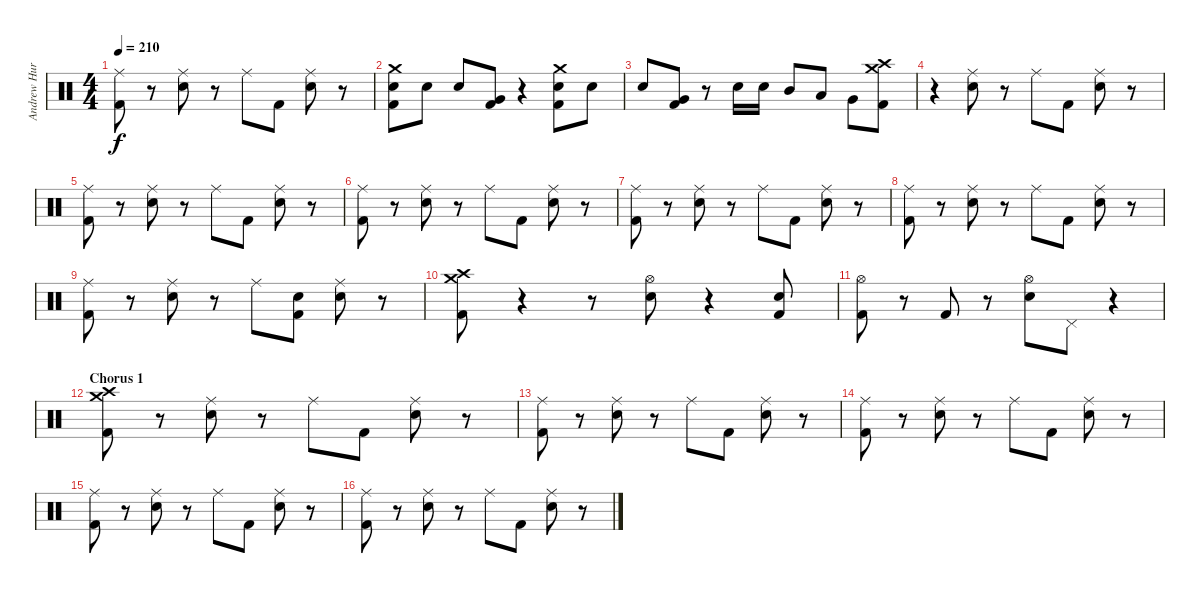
\track ("Andrew Hurley (Drums)" "Andrew Hur") {instrument percussion}
\staff {score}
\articulation defaults
\ts (4 4)
\tempo 210
\clef neutral
\ks c
("Ride (middle)" "Kick (hit) 2").8{dy f} r.8 ("Ride (middle)" "Electric Snare (hit)").8 r.8 "Ride (middle)".8 "Kick (hit) 2".8 ("Ride (middle)" "Electric Snare (hit)").8 r.8 |
("Crash medium (hit)" "Electric Snare (hit)" "Kick (hit) 2").8 "Electric Snare (hit)".8 "Electric Snare (hit)".8 ("Very Low Tom (hit)" "Kick (hit) 2").8 r.4 ("Crash medium (hit)" "Electric Snare (hit)" "Kick (hit) 2").8 "Electric Snare (hit)".8 |
"Electric Snare (hit)".8 ("Very Low Tom (hit)" "Kick (hit) 2").8 r.8 "Electric Snare (hit)".16 "Electric Snare (hit)".16 "Mid Tom (hit)".8 "Low Tom (hit)".8 "Very Low Tom (hit)".8 ("Crash medium (hit)" "Crash high (hit)" "Kick (hit) 2").8 |
r.4 ("Ride (middle)" "Electric Snare (hit)").8 r.8 "Ride (middle)".8 "Kick (hit) 2".8 ("Ride (middle)" "Electric Snare (hit)").8 r.8 |
("Ride (middle)" "Kick (hit) 2").8 r.8 ("Ride (middle)" "Electric Snare (hit)").8 r.8 "Ride (middle)".8 "Kick (hit) 2".8 ("Ride (middle)" "Electric Snare (hit)").8 r.8 |
("Ride (middle)" "Kick (hit) 2").8 r.8 ("Ride (middle)" "Electric Snare (hit)").8 r.8 "Ride (middle)".8 "Kick (hit) 2".8 ("Ride (middle)" "Electric Snare (hit)").8 r.8 |
("Ride (middle)" "Kick (hit) 2").8 r.8 ("Ride (middle)" "Electric Snare (hit)").8 r.8 "Ride (middle)".8 "Kick (hit) 2".8 ("Ride (middle)" "Electric Snare (hit)").8 r.8 |
("Ride (middle)" "Kick (hit) 2").8 r.8 ("Ride (middle)" "Electric Snare (hit)").8 r.8 "Ride (middle)".8 "Kick (hit) 2".8 ("Ride (middle)" "Electric Snare (hit)").8 r.8 |
("Ride (middle)" "Kick (hit) 2").8 r.8 ("Ride (middle)" "Electric Snare (hit)").8 r.8 "Ride (middle)".8 ("Electric Snare (hit)" "Kick (hit) 2").8 ("Ride (middle)" "Electric Snare (hit)").8 r.8 |
("Crash medium (hit)" "Crash high (hit)" "Kick (hit) 2").8 r.4 r.8 ("Hi-Hat (open)" "Electric Snare (hit)").8 r.4 ("Electric Snare (hit)" "Kick (hit) 2").8 |
("Hi-Hat (open)" "Kick (hit) 2").8 r.8 "Kick (hit) 2".8 r.8 ("Hi-Hat (open)" "Electric Snare (hit)").8 "Pedal Hi-Hat (hit)".8 r.4 |
\section ("" "Chorus 1")
("Crash medium (hit)" "Crash high (hit)" "Kick (hit) 2").8 r.8 ("Ride (middle)" "Electric Snare (hit)").8 r.8 "Ride (middle)".8 "Kick (hit) 2".8 ("Ride (middle)" "Electric Snare (hit)").8 r.8 |
("Ride (middle)" "Kick (hit) 2").8 r.8 ("Ride (middle)" "Electric Snare (hit)").8 r.8 "Ride (middle)".8 "Kick (hit) 2".8 ("Ride (middle)" "Electric Snare (hit)").8 r.8 |
("Ride (middle)" "Kick (hit) 2").8 r.8 ("Ride (middle)" "Electric Snare (hit)").8 r.8 "Ride (middle)".8 "Kick (hit) 2".8 ("Ride (middle)" "Electric Snare (hit)").8 r.8 |
("Ride (middle)" "Kick (hit) 2").8 r.8 ("Ride (middle)" "Electric Snare (hit)").8 r.8 "Ride (middle)".8 "Kick (hit) 2".8 ("Ride (middle)" "Electric Snare (hit)").8 r.8 |
("Ride (middle)" "Kick (hit) 2").8 r.8 ("Ride (middle)" "Electric Snare (hit)").8 r.8 "Ride (middle)".8 "Kick (hit) 2".8 ("Ride (middle)" "Electric Snare (hit)").8 r.8
